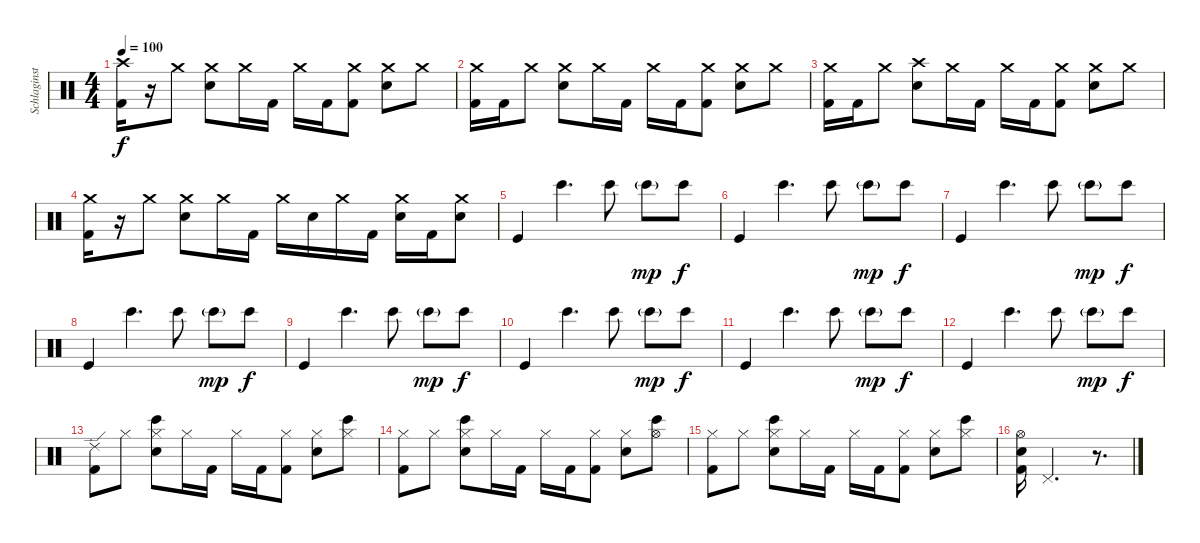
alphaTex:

\track ("Schlaginstrumente - Auswahl" "Schlaginst") {instrument percussion}
\staff {score}
\articulation defaults
\ts (4 4)
\tempo 100
\clef neutral
\ks c
("Crash high (hit)" "Kick (hit) 2").16{dy f} r.16 "Crash medium (hit)".8 ("Crash medium (hit)" "Snare (hit) 2").8 "Crash medium (hit)".16 "Kick (hit) 2".16 "Crash medium (hit)".16 "Kick (hit) 2".16 ("Crash medium (hit)" "Kick (hit) 2").8 ("Crash medium (hit)" "Snare (hit) 2").8 "Crash medium (hit)".8 |
("Crash medium (hit)" "Kick (hit) 2").16 "Kick (hit) 2".16 "Crash medium (hit)".8 ("Crash medium (hit)" "Snare (hit) 2").8 "Crash medium (hit)".16 "Kick (hit) 2".16 "Crash medium (hit)".16 "Kick (hit) 2".16 ("Crash medium (hit)" "Kick (hit) 2").8 ("Crash medium (hit)" "Snare (hit) 2").8 "Crash medium (hit)".8 |
("Crash medium (hit)" "Kick (hit) 2").16 "Kick (hit) 2".16 "Crash medium (hit)".8 ("Crash high (hit)" "Snare (hit) 2").8 "Crash medium (hit)".16 "Kick (hit) 2".16 "Crash medium (hit)".16 "Kick (hit) 2".16 ("Crash medium (hit)" "Kick (hit) 2").8 ("Crash medium (hit)" "Snare (hit) 2").8 "Crash medium (hit)".8 |
("Crash medium (hit)" "Kick (hit) 2").16 r.16 "Crash medium (hit)".8 ("Crash medium (hit)" "Snare (hit) 2").8 "Crash medium (hit)".16 "Kick (hit) 2".16 "Crash medium (hit)".16 "Snare (hit) 2".16 "Crash medium (hit)".16 "Kick (hit) 2".16 ("Crash medium (hit)" "Snare (hit) 2").16 "Kick (hit) 2".16 ("Crash medium (hit)" "Snare (hit) 2").8 |
"Kick (hit)".4 "Bongo High (hit)".4{d} "Bongo High (hit)".8 "Bongo High (hit)"{g}.8{dy mp} "Bongo High (hit)".8{dy f} |
"Kick (hit)".4 "Bongo High (hit)".4{d} "Bongo High (hit)".8 "Bongo High (hit)"{g}.8{dy mp} "Bongo High (hit)".8{dy f} |
"Kick (hit)".4 "Bongo High (hit)".4{d} "Bongo High (hit)".8 "Bongo High (hit)"{g}.8{dy mp} "Bongo High (hit)".8{dy f} |
"Kick (hit)".4 "Bongo High (hit)".4{d} "Bongo High (hit)".8 "Bongo High (hit)"{g}.8{dy mp} "Bongo High (hit)".8{dy f} |
"Kick (hit)".4 "Bongo High (hit)".4{d} "Bongo High (hit)".8 "Bongo High (hit)"{g}.8{dy mp} "Bongo High (hit)".8{dy f} |
"Kick (hit)".4 "Bongo High (hit)".4{d} "Bongo High (hit)".8 "Bongo High (hit)"{g}.8{dy mp} "Bongo High (hit)".8{dy f} |
"Kick (hit)".4 "Bongo High (hit)".4{d} "Bongo High (hit)".8 "Bongo High (hit)"{g}.8{dy mp} "Bongo High (hit)".8{dy f} |
"Kick (hit)".4 "Bongo High (hit)".4{d} "Bongo High (hit)".8 "Bongo High (hit)"{g}.8{dy mp} "Bongo High (hit)".8{dy f} |
("Ride (edge) 2" "Kick (hit) 2").8 "Hi-Hat (closed)".8 ("Hi-Hat (closed)" "Bongo High (hit)" "Snare (hit) 2").8 "Hi-Hat (closed)".16 "Kick (hit) 2".16 "Hi-Hat (closed)".16 "Kick (hit) 2".16 ("Hi-Hat (closed)" "Kick (hit) 2").8 ("Hi-Hat (closed)" "Snare (hit) 2").8 ("Hi-Hat (closed)" "Bongo High (hit)").8 |
("Hi-Hat (closed)" "Kick (hit) 2").8 "Hi-Hat (closed)".8 ("Hi-Hat (closed)" "Bongo High (hit)" "Snare (hit) 2").8 "Hi-Hat (closed)".16 "Kick (hit) 2".16 "Hi-Hat (closed)".16 "Kick (hit) 2".16 ("Hi-Hat (closed)" "Kick (hit) 2").8 ("Hi-Hat (closed)" "Snare (hit) 2").8 ("Hi-Hat (open)" "Bongo High (hit)").8 |
("Hi-Hat (closed)" "Kick (hit) 2").8 "Hi-Hat (closed)".8 ("Hi-Hat (closed)" "Bongo High (hit)" "Snare (hit) 2").8 "Hi-Hat (closed)".16 "Kick (hit) 2".16 "Hi-Hat (closed)".16 "Kick (hit) 2".16 ("Hi-Hat (closed)" "Kick (hit) 2").8 ("Hi-Hat (closed)" "Snare (hit) 2").8 ("Hi-Hat (closed)" "Bongo High (hit)").8 |
("Hi-Hat (open)" "Snare (hit) 2" "Kick (hit) 2").16 "Pedal Hi-Hat (hit)".2{d} r.8{d}
